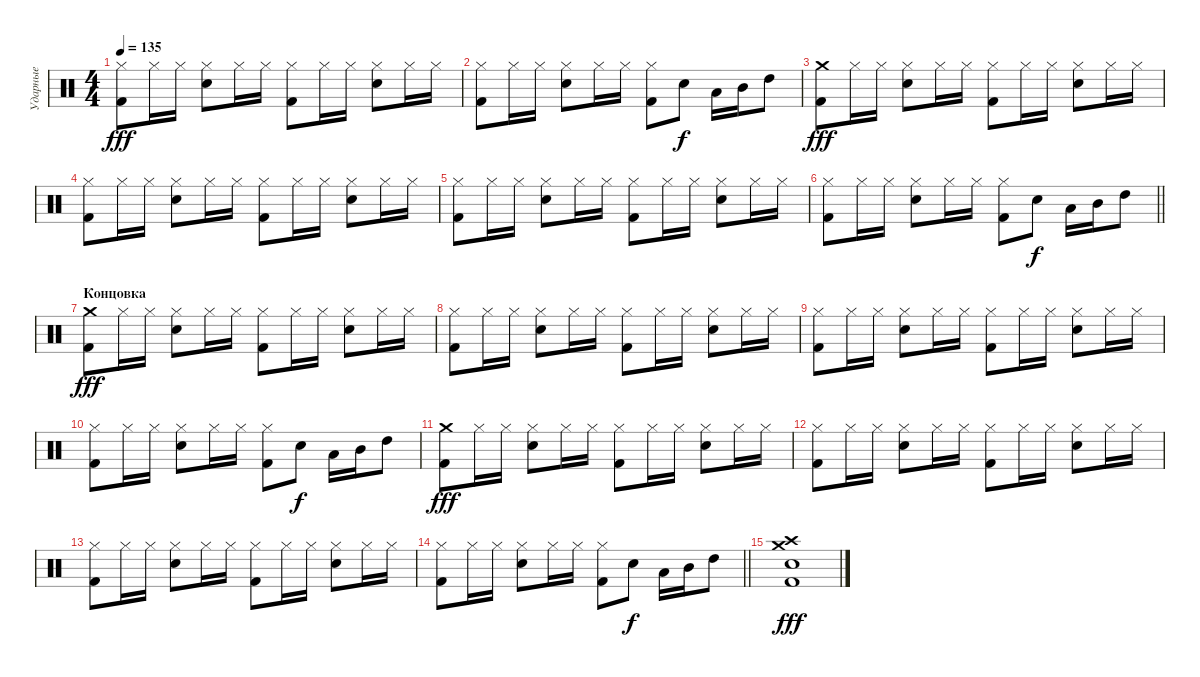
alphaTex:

\track ("Ударные" "Ударные") {instrument percussion}
\staff {score}
\articulation defaults
\ts (4 4)
\tempo 135
\clef neutral
\ks c
("Hi-Hat (closed)" "Kick (hit) 2").8{dy fff} "Hi-Hat (closed)".16 "Hi-Hat (closed)".16 ("Hi-Hat (closed)" "Electric Snare (hit)").8 "Hi-Hat (closed)".16 "Hi-Hat (closed)".16 ("Hi-Hat (closed)" "Kick (hit) 2").8 "Hi-Hat (closed)".16 "Hi-Hat (closed)".16 ("Hi-Hat (closed)" "Electric Snare (hit)").8 "Hi-Hat (closed)".16 "Hi-Hat (closed)".16 |
("Hi-Hat (closed)" "Kick (hit) 2").8 "Hi-Hat (closed)".16 "Hi-Hat (closed)".16 ("Hi-Hat (closed)" "Electric Snare (hit)").8 "Hi-Hat (closed)".16 "Hi-Hat (closed)".16 ("Hi-Hat (closed)" "Kick (hit) 2").8 "Electric Snare (hit)".8{dy f} "Low Tom (hit)".16 "Mid Tom (hit)".16 "High Tom (hit)".8 |
("Crash medium (hit)" "Kick (hit) 2").8{dy fff} "Hi-Hat (closed)".16 "Hi-Hat (closed)".16 ("Hi-Hat (closed)" "Electric Snare (hit)").8 "Hi-Hat (closed)".16 "Hi-Hat (closed)".16 ("Hi-Hat (closed)" "Kick (hit) 2").8 "Hi-Hat (closed)".16 "Hi-Hat (closed)".16 ("Hi-Hat (closed)" "Electric Snare (hit)").8 "Hi-Hat (closed)".16 "Hi-Hat (closed)".16 |
("Hi-Hat (closed)" "Kick (hit) 2").8 "Hi-Hat (closed)".16 "Hi-Hat (closed)".16 ("Hi-Hat (closed)" "Electric Snare (hit)").8 "Hi-Hat (closed)".16 "Hi-Hat (closed)".16 ("Hi-Hat (closed)" "Kick (hit) 2").8 "Hi-Hat (closed)".16 "Hi-Hat (closed)".16 ("Hi-Hat (closed)" "Electric Snare (hit)").8 "Hi-Hat (closed)".16 "Hi-Hat (closed)".16 |
("Hi-Hat (closed)" "Kick (hit) 2").8 "Hi-Hat (closed)".16 "Hi-Hat (closed)".16 ("Hi-Hat (closed)" "Electric Snare (hit)").8 "Hi-Hat (closed)".16 "Hi-Hat (closed)".16 ("Hi-Hat (closed)" "Kick (hit) 2").8 "Hi-Hat (closed)".16 "Hi-Hat (closed)".16 ("Hi-Hat (closed)" "Electric Snare (hit)").8 "Hi-Hat (closed)".16 "Hi-Hat (closed)".16 |
\barLineRight lightlight
("Hi-Hat (closed)" "Kick (hit) 2").8 "Hi-Hat (closed)".16 "Hi-Hat (closed)".16 ("Hi-Hat (closed)" "Electric Snare (hit)").8 "Hi-Hat (closed)".16 "Hi-Hat (closed)".16 ("Hi-Hat (closed)" "Kick (hit) 2").8 "Electric Snare (hit)".8{dy f} "Low Tom (hit)".16 "Mid Tom (hit)".16 "High Tom (hit)".8 |
\section ("" "Концовка")
("Crash medium (hit)" "Kick (hit) 2").8{dy fff} "Hi-Hat (closed)".16 "Hi-Hat (closed)".16 ("Hi-Hat (closed)" "Electric Snare (hit)").8 "Hi-Hat (closed)".16 "Hi-Hat (closed)".16 ("Hi-Hat (closed)" "Kick (hit) 2").8 "Hi-Hat (closed)".16 "Hi-Hat (closed)".16 ("Hi-Hat (closed)" "Electric Snare (hit)").8 "Hi-Hat (closed)".16 "Hi-Hat (closed)".16 |
("Hi-Hat (closed)" "Kick (hit) 2").8 "Hi-Hat (closed)".16 "Hi-Hat (closed)".16 ("Hi-Hat (closed)" "Electric Snare (hit)").8 "Hi-Hat (closed)".16 "Hi-Hat (closed)".16 ("Hi-Hat (closed)" "Kick (hit) 2").8 "Hi-Hat (closed)".16 "Hi-Hat (closed)".16 ("Hi-Hat (closed)" "Electric Snare (hit)").8 "Hi-Hat (closed)".16 "Hi-Hat (closed)".16 |
("Hi-Hat (closed)" "Kick (hit) 2").8 "Hi-Hat (closed)".16 "Hi-Hat (closed)".16 ("Hi-Hat (closed)" "Electric Snare (hit)").8 "Hi-Hat (closed)".16 "Hi-Hat (closed)".16 ("Hi-Hat (closed)" "Kick (hit) 2").8 "Hi-Hat (closed)".16 "Hi-Hat (closed)".16 ("Hi-Hat (closed)" "Electric Snare (hit)").8 "Hi-Hat (closed)".16 "Hi-Hat (closed)".16 |
("Hi-Hat (closed)" "Kick (hit) 2").8 "Hi-Hat (closed)".16 "Hi-Hat (closed)".16 ("Hi-Hat (closed)" "Electric Snare (hit)").8 "Hi-Hat (closed)".16 "Hi-Hat (closed)".16 ("Hi-Hat (closed)" "Kick (hit) 2").8 "Electric Snare (hit)".8{dy f} "Low Tom (hit)".16 "Mid Tom (hit)".16 "High Tom (hit)".8 |
("Crash medium (hit)" "Kick (hit) 2").8{dy fff} "Hi-Hat (closed)".16 "Hi-Hat (closed)".16 ("Hi-Hat (closed)" "Electric Snare (hit)").8 "Hi-Hat (closed)".16 "Hi-Hat (closed)".16 ("Hi-Hat (closed)" "Kick (hit) 2").8 "Hi-Hat (closed)".16 "Hi-Hat (closed)".16 ("Hi-Hat (closed)" "Electric Snare (hit)").8 "Hi-Hat (closed)".16 "Hi-Hat (closed)".16 |
("Hi-Hat (closed)" "Kick (hit) 2").8 "Hi-Hat (closed)".16 "Hi-Hat (closed)".16 ("Hi-Hat (closed)" "Electric Snare (hit)").8 "Hi-Hat (closed)".16 "Hi-Hat (closed)".16 ("Hi-Hat (closed)" "Kick (hit) 2").8 "Hi-Hat (closed)".16 "Hi-Hat (closed)".16 ("Hi-Hat (closed)" "Electric Snare (hit)").8 "Hi-Hat (closed)".16 "Hi-Hat (closed)".16 |
("Hi-Hat (closed)" "Kick (hit) 2").8 "Hi-Hat (closed)".16 "Hi-Hat (closed)".16 ("Hi-Hat (closed)" "Electric Snare (hit)").8 "Hi-Hat (closed)".16 "Hi-Hat (closed)".16 ("Hi-Hat (closed)" "Kick (hit) 2").8 "Hi-Hat (closed)".16 "Hi-Hat (closed)".16 ("Hi-Hat (closed)" "Electric Snare (hit)").8 "Hi-Hat (closed)".16 "Hi-Hat (closed)".16 |
\barLineRight lightlight
("Hi-Hat (closed)" "Kick (hit) 2").8 "Hi-Hat (closed)".16 "Hi-Hat (closed)".16 ("Hi-Hat (closed)" "Electric Snare (hit)").8 "Hi-Hat (closed)".16 "Hi-Hat (closed)".16 ("Hi-Hat (closed)" "Kick (hit) 2").8 "Electric Snare (hit)".8{dy f} "Low Tom (hit)".16 "Mid Tom (hit)".16 "High Tom (hit)".8 |
("Crash medium (hit)" "Electric Snare (hit)" "Kick (hit) 2" "Crash high (hit)").1{dy fff}
